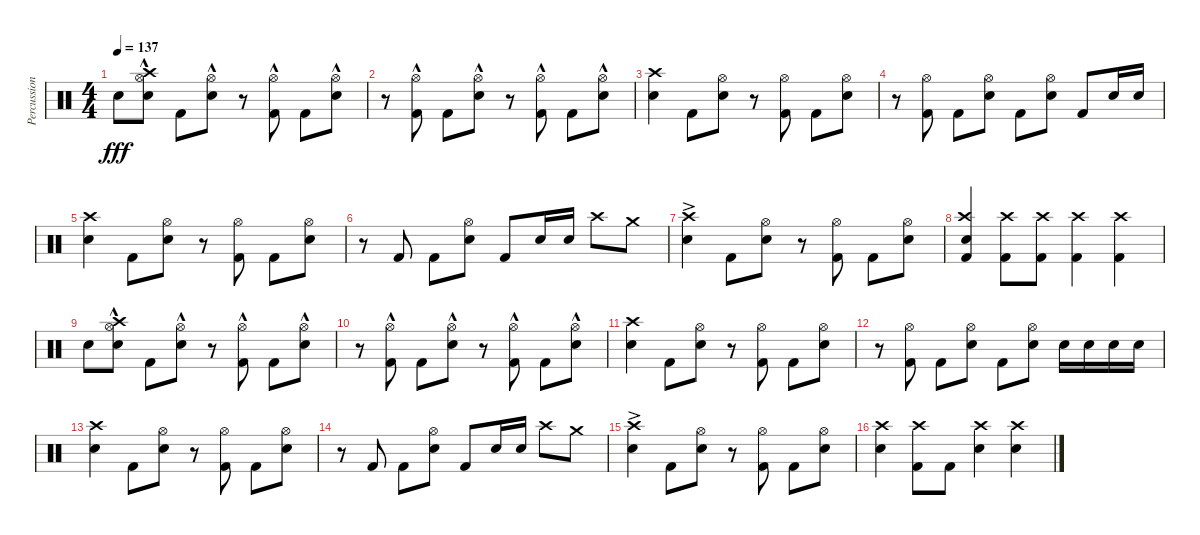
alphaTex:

\track ("Percussion" "Percussion") {solo instrument percussion}
\staff {score}
\articulation defaults
\ts (4 4)
\tempo 137
\clef neutral
\ks c "Electric Snare (hit)".8{dy fff}
("Hi-Hat (open)" "Crash high (hit)"{hac} "Electric Snare (hit)").8 "Kick (hit) 2".8 ("Hi-Hat (open)"{hac} "Electric Snare (hit)").8 r.8 ("Kick (hit) 2" "Hi-Hat (open)"{hac}).8 "Kick (hit) 2".8 ("Electric Snare (hit)" "Hi-Hat (open)"{hac}).8 |
r.8 ("Kick (hit) 2" "Hi-Hat (open)"{hac}).8 "Kick (hit) 2".8 ("Electric Snare (hit)" "Hi-Hat (open)"{hac}).8 r.8 ("Kick (hit) 2" "Hi-Hat (open)"{hac}).8 "Kick (hit) 2".8 ("Electric Snare (hit)" "Hi-Hat (open)"{hac}).8 |
("Crash high (hit)" "Electric Snare (hit)").4 "Kick (hit) 2".8 ("Electric Snare (hit)" "Hi-Hat (open)").8 r.8 ("Kick (hit) 2" "Hi-Hat (open)").8 "Kick (hit) 2".8 ("Electric Snare (hit)" "Hi-Hat (open)").8 |
r.8 ("Kick (hit) 2" "Hi-Hat (open)").8 "Kick (hit) 2".8 ("Electric Snare (hit)" "Hi-Hat (open)").8 "Kick (hit) 2".8 ("Electric Snare (hit)" "Hi-Hat (open)").8 "Kick (hit) 2".8 "Electric Snare (hit)".16 "Electric Snare (hit)".16 |
("Crash high (hit)" "Electric Snare (hit)").4 "Kick (hit) 2".8 ("Electric Snare (hit)" "Hi-Hat (open)").8 r.8 ("Kick (hit) 2" "Hi-Hat (open)").8 "Kick (hit) 2".8 ("Electric Snare (hit)" "Hi-Hat (open)").8 |
r.8 "Kick (hit) 2".8 "Kick (hit) 2".8 ("Electric Snare (hit)" "Hi-Hat (open)").8 "Kick (hit) 2".8 "Electric Snare (hit)".16 "Electric Snare (hit)".16 "Crash high (hit)".8 "Crash medium (hit)".8 |
("Crash high (hit)"{ac} "Electric Snare (hit)"{ac}).4 "Kick (hit) 2".8 ("Electric Snare (hit)" "Hi-Hat (open)").8 r.8 ("Kick (hit) 2" "Hi-Hat (open)").8 "Kick (hit) 2".8 ("Electric Snare (hit)" "Hi-Hat (open)").8 |
("Crash high (hit)" "Electric Snare (hit)" "Kick (hit) 2").4 ("Crash high (hit)" "Kick (hit) 2").8 ("Crash high (hit)" "Kick (hit) 2").8 ("Crash high (hit)" "Kick (hit) 2").4 ("Crash high (hit)" "Kick (hit) 2").4 |
"Electric Snare (hit)".8 ("Hi-Hat (open)" "Crash high (hit)"{hac} "Electric Snare (hit)").8 "Kick (hit) 2".8 ("Hi-Hat (open)"{hac} "Electric Snare (hit)").8 r.8 ("Kick (hit) 2" "Hi-Hat (open)"{hac}).8 "Kick (hit) 2".8 ("Electric Snare (hit)" "Hi-Hat (open)"{hac}).8 |
r.8 ("Kick (hit) 2" "Hi-Hat (open)"{hac}).8 "Kick (hit) 2".8 ("Electric Snare (hit)" "Hi-Hat (open)"{hac}).8 r.8 ("Kick (hit) 2" "Hi-Hat (open)"{hac}).8 "Kick (hit) 2".8 ("Electric Snare (hit)" "Hi-Hat (open)"{hac}).8 |
("Crash high (hit)" "Electric Snare (hit)").4 "Kick (hit) 2".8 ("Electric Snare (hit)" "Hi-Hat (open)").8 r.8 ("Kick (hit) 2" "Hi-Hat (open)").8 "Kick (hit) 2".8 ("Electric Snare (hit)" "Hi-Hat (open)").8 |
r.8 ("Kick (hit) 2" "Hi-Hat (open)").8 "Kick (hit) 2".8 ("Electric Snare (hit)" "Hi-Hat (open)").8 "Kick (hit) 2".8 ("Electric Snare (hit)" "Hi-Hat (open)").8 "Electric Snare (hit)".16 "Electric Snare (hit)".16 "Electric Snare (hit)".16 "Electric Snare (hit)".16 |
("Crash high (hit)" "Electric Snare (hit)").4 "Kick (hit) 2".8 ("Electric Snare (hit)" "Hi-Hat (open)").8 r.8 ("Kick (hit) 2" "Hi-Hat (open)").8 "Kick (hit) 2".8 ("Electric Snare (hit)" "Hi-Hat (open)").8 |
r.8 "Kick (hit) 2".8 "Kick (hit) 2".8 ("Electric Snare (hit)" "Hi-Hat (open)").8 "Kick (hit) 2".8 "Electric Snare (hit)".16 "Electric Snare (hit)".16 "Crash high (hit)".8 "Crash medium (hit)".8 |
("Crash high (hit)"{ac} "Electric Snare (hit)"{ac}).4 "Kick (hit) 2".8 ("Electric Snare (hit)" "Hi-Hat (open)").8 r.8 ("Kick (hit) 2" "Hi-Hat (open)").8 "Kick (hit) 2".8 ("Electric Snare (hit)" "Hi-Hat (open)").8 |
("Electric Snare (hit)" "Crash high (hit)").4 ("Kick (hit) 2" "Crash high (hit)").8 "Kick (hit) 2".8 ("Snare (hit) 2" "Crash high (hit)").4 ("Crash high (hit)" "Electric Snare (hit)").4
